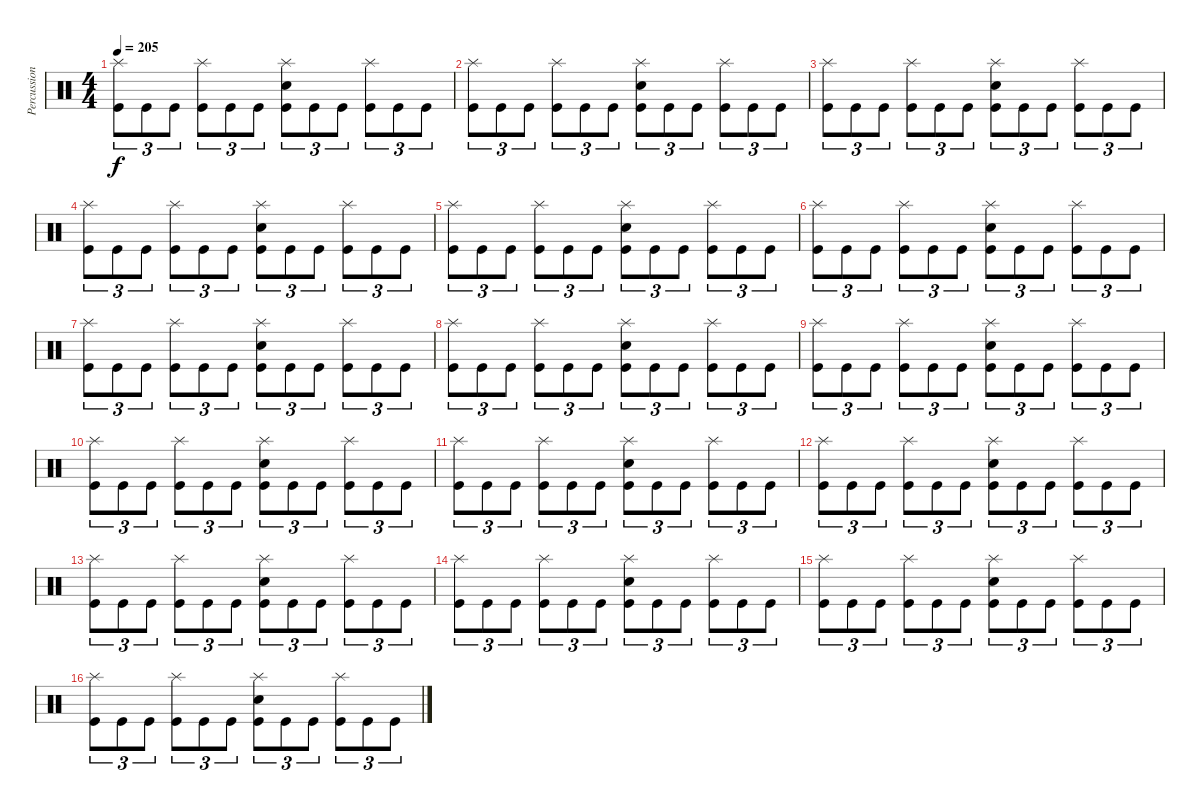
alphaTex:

\track ("Percussion" "Percussion") {instrument percussion}
\staff {score}
\articulation defaults
\ts (4 4)
\tempo 205
\clef neutral
\ks c
("Splash (hit)" "Kick (hit)").8{tu (3 2) dy f} "Kick (hit)".8{tu (3 2)} "Kick (hit)".8{tu (3 2)} ("Splash (hit)" "Kick (hit)").8{tu (3 2)} "Kick (hit)".8{tu (3 2)} "Kick (hit)".8{tu (3 2)} ("Splash (hit)" "Snare (hit) 2" "Kick (hit)").8{tu (3 2)} "Kick (hit)".8{tu (3 2)} "Kick (hit)".8{tu (3 2)} ("Splash (hit)" "Kick (hit)").8{tu (3 2)} "Kick (hit)".8{tu (3 2)} "Kick (hit)".8{tu (3 2)} |
("Splash (hit)" "Kick (hit)").8{tu (3 2)} "Kick (hit)".8{tu (3 2)} "Kick (hit)".8{tu (3 2)} ("Splash (hit)" "Kick (hit)").8{tu (3 2)} "Kick (hit)".8{tu (3 2)} "Kick (hit)".8{tu (3 2)} ("Splash (hit)" "Snare (hit) 2" "Kick (hit)").8{tu (3 2)} "Kick (hit)".8{tu (3 2)} "Kick (hit)".8{tu (3 2)} ("Splash (hit)" "Kick (hit)").8{tu (3 2)} "Kick (hit)".8{tu (3 2)} "Kick (hit)".8{tu (3 2)} |
("Splash (hit)" "Kick (hit)").8{tu (3 2)} "Kick (hit)".8{tu (3 2)} "Kick (hit)".8{tu (3 2)} ("Splash (hit)" "Kick (hit)").8{tu (3 2)} "Kick (hit)".8{tu (3 2)} "Kick (hit)".8{tu (3 2)} ("Splash (hit)" "Snare (hit) 2" "Kick (hit)").8{tu (3 2)} "Kick (hit)".8{tu (3 2)} "Kick (hit)".8{tu (3 2)} ("Splash (hit)" "Kick (hit)").8{tu (3 2)} "Kick (hit)".8{tu (3 2)} "Kick (hit)".8{tu (3 2)} |
("Splash (hit)" "Kick (hit)").8{tu (3 2)} "Kick (hit)".8{tu (3 2)} "Kick (hit)".8{tu (3 2)} ("Splash (hit)" "Kick (hit)").8{tu (3 2)} "Kick (hit)".8{tu (3 2)} "Kick (hit)".8{tu (3 2)} ("Splash (hit)" "Snare (hit) 2" "Kick (hit)").8{tu (3 2)} "Kick (hit)".8{tu (3 2)} "Kick (hit)".8{tu (3 2)} ("Splash (hit)" "Kick (hit)").8{tu (3 2)} "Kick (hit)".8{tu (3 2)} "Kick (hit)".8{tu (3 2)} |
("Splash (hit)" "Kick (hit)").8{tu (3 2)} "Kick (hit)".8{tu (3 2)} "Kick (hit)".8{tu (3 2)} ("Splash (hit)" "Kick (hit)").8{tu (3 2)} "Kick (hit)".8{tu (3 2)} "Kick (hit)".8{tu (3 2)} ("Splash (hit)" "Snare (hit) 2" "Kick (hit)").8{tu (3 2)} "Kick (hit)".8{tu (3 2)} "Kick (hit)".8{tu (3 2)} ("Splash (hit)" "Kick (hit)").8{tu (3 2)} "Kick (hit)".8{tu (3 2)} "Kick (hit)".8{tu (3 2)} |
("Splash (hit)" "Kick (hit)").8{tu (3 2)} "Kick (hit)".8{tu (3 2)} "Kick (hit)".8{tu (3 2)} ("Splash (hit)" "Kick (hit)").8{tu (3 2)} "Kick (hit)".8{tu (3 2)} "Kick (hit)".8{tu (3 2)} ("Splash (hit)" "Snare (hit) 2" "Kick (hit)").8{tu (3 2)} "Kick (hit)".8{tu (3 2)} "Kick (hit)".8{tu (3 2)} ("Splash (hit)" "Kick (hit)").8{tu (3 2)} "Kick (hit)".8{tu (3 2)} "Kick (hit)".8{tu (3 2)} |
("Splash (hit)" "Kick (hit)").8{tu (3 2)} "Kick (hit)".8{tu (3 2)} "Kick (hit)".8{tu (3 2)} ("Splash (hit)" "Kick (hit)").8{tu (3 2)} "Kick (hit)".8{tu (3 2)} "Kick (hit)".8{tu (3 2)} ("Splash (hit)" "Snare (hit) 2" "Kick (hit)").8{tu (3 2)} "Kick (hit)".8{tu (3 2)} "Kick (hit)".8{tu (3 2)} ("Splash (hit)" "Kick (hit)").8{tu (3 2)} "Kick (hit)".8{tu (3 2)} "Kick (hit)".8{tu (3 2)} |
("Splash (hit)" "Kick (hit)").8{tu (3 2)} "Kick (hit)".8{tu (3 2)} "Kick (hit)".8{tu (3 2)} ("Splash (hit)" "Kick (hit)").8{tu (3 2)} "Kick (hit)".8{tu (3 2)} "Kick (hit)".8{tu (3 2)} ("Splash (hit)" "Snare (hit) 2" "Kick (hit)").8{tu (3 2)} "Kick (hit)".8{tu (3 2)} "Kick (hit)".8{tu (3 2)} ("Splash (hit)" "Kick (hit)").8{tu (3 2)} "Kick (hit)".8{tu (3 2)} "Kick (hit)".8{tu (3 2)} |
("Splash (hit)" "Kick (hit)").8{tu (3 2)} "Kick (hit)".8{tu (3 2)} "Kick (hit)".8{tu (3 2)} ("Splash (hit)" "Kick (hit)").8{tu (3 2)} "Kick (hit)".8{tu (3 2)} "Kick (hit)".8{tu (3 2)} ("Splash (hit)" "Snare (hit) 2" "Kick (hit)").8{tu (3 2)} "Kick (hit)".8{tu (3 2)} "Kick (hit)".8{tu (3 2)} ("Splash (hit)" "Kick (hit)").8{tu (3 2)} "Kick (hit)".8{tu (3 2)} "Kick (hit)".8{tu (3 2)} |
("Splash (hit)" "Kick (hit)").8{tu (3 2)} "Kick (hit)".8{tu (3 2)} "Kick (hit)".8{tu (3 2)} ("Splash (hit)" "Kick (hit)").8{tu (3 2)} "Kick (hit)".8{tu (3 2)} "Kick (hit)".8{tu (3 2)} ("Splash (hit)" "Snare (hit) 2" "Kick (hit)").8{tu (3 2)} "Kick (hit)".8{tu (3 2)} "Kick (hit)".8{tu (3 2)} ("Splash (hit)" "Kick (hit)").8{tu (3 2)} "Kick (hit)".8{tu (3 2)} "Kick (hit)".8{tu (3 2)} |
("Splash (hit)" "Kick (hit)").8{tu (3 2)} "Kick (hit)".8{tu (3 2)} "Kick (hit)".8{tu (3 2)} ("Splash (hit)" "Kick (hit)").8{tu (3 2)} "Kick (hit)".8{tu (3 2)} "Kick (hit)".8{tu (3 2)} ("Splash (hit)" "Snare (hit) 2" "Kick (hit)").8{tu (3 2)} "Kick (hit)".8{tu (3 2)} "Kick (hit)".8{tu (3 2)} ("Splash (hit)" "Kick (hit)").8{tu (3 2)} "Kick (hit)".8{tu (3 2)} "Kick (hit)".8{tu (3 2)} |
("Splash (hit)" "Kick (hit)").8{tu (3 2)} "Kick (hit)".8{tu (3 2)} "Kick (hit)".8{tu (3 2)} ("Splash (hit)" "Kick (hit)").8{tu (3 2)} "Kick (hit)".8{tu (3 2)} "Kick (hit)".8{tu (3 2)} ("Splash (hit)" "Snare (hit) 2" "Kick (hit)").8{tu (3 2)} "Kick (hit)".8{tu (3 2)} "Kick (hit)".8{tu (3 2)} ("Splash (hit)" "Kick (hit)").8{tu (3 2)} "Kick (hit)".8{tu (3 2)} "Kick (hit)".8{tu (3 2)} |
("Splash (hit)" "Kick (hit)").8{tu (3 2)} "Kick (hit)".8{tu (3 2)} "Kick (hit)".8{tu (3 2)} ("Splash (hit)" "Kick (hit)").8{tu (3 2)} "Kick (hit)".8{tu (3 2)} "Kick (hit)".8{tu (3 2)} ("Splash (hit)" "Snare (hit) 2" "Kick (hit)").8{tu (3 2)} "Kick (hit)".8{tu (3 2)} "Kick (hit)".8{tu (3 2)} ("Splash (hit)" "Kick (hit)").8{tu (3 2)} "Kick (hit)".8{tu (3 2)} "Kick (hit)".8{tu (3 2)} |
("Splash (hit)" "Kick (hit)").8{tu (3 2)} "Kick (hit)".8{tu (3 2)} "Kick (hit)".8{tu (3 2)} ("Splash (hit)" "Kick (hit)").8{tu (3 2)} "Kick (hit)".8{tu (3 2)} "Kick (hit)".8{tu (3 2)} ("Splash (hit)" "Snare (hit) 2" "Kick (hit)").8{tu (3 2)} "Kick (hit)".8{tu (3 2)} "Kick (hit)".8{tu (3 2)} ("Splash (hit)" "Kick (hit)").8{tu (3 2)} "Kick (hit)".8{tu (3 2)} "Kick (hit)".8{tu (3 2)} |
("Splash (hit)" "Kick (hit)").8{tu (3 2)} "Kick (hit)".8{tu (3 2)} "Kick (hit)".8{tu (3 2)} ("Splash (hit)" "Kick (hit)").8{tu (3 2)} "Kick (hit)".8{tu (3 2)} "Kick (hit)".8{tu (3 2)} ("Splash (hit)" "Snare (hit) 2" "Kick (hit)").8{tu (3 2)} "Kick (hit)".8{tu (3 2)} "Kick (hit)".8{tu (3 2)} ("Splash (hit)" "Kick (hit)").8{tu (3 2)} "Kick (hit)".8{tu (3 2)} "Kick (hit)".8{tu (3 2)} |
("Splash (hit)" "Kick (hit)").8{tu (3 2)} "Kick (hit)".8{tu (3 2)} "Kick (hit)".8{tu (3 2)} ("Splash (hit)" "Kick (hit)").8{tu (3 2)} "Kick (hit)".8{tu (3 2)} "Kick (hit)".8{tu (3 2)} ("Splash (hit)" "Snare (hit) 2" "Kick (hit)").8{tu (3 2)} "Kick (hit)".8{tu (3 2)} "Kick (hit)".8{tu (3 2)} ("Splash (hit)" "Kick (hit)").8{tu (3 2)} "Kick (hit)".8{tu (3 2)} "Kick (hit)".8{tu (3 2)}
